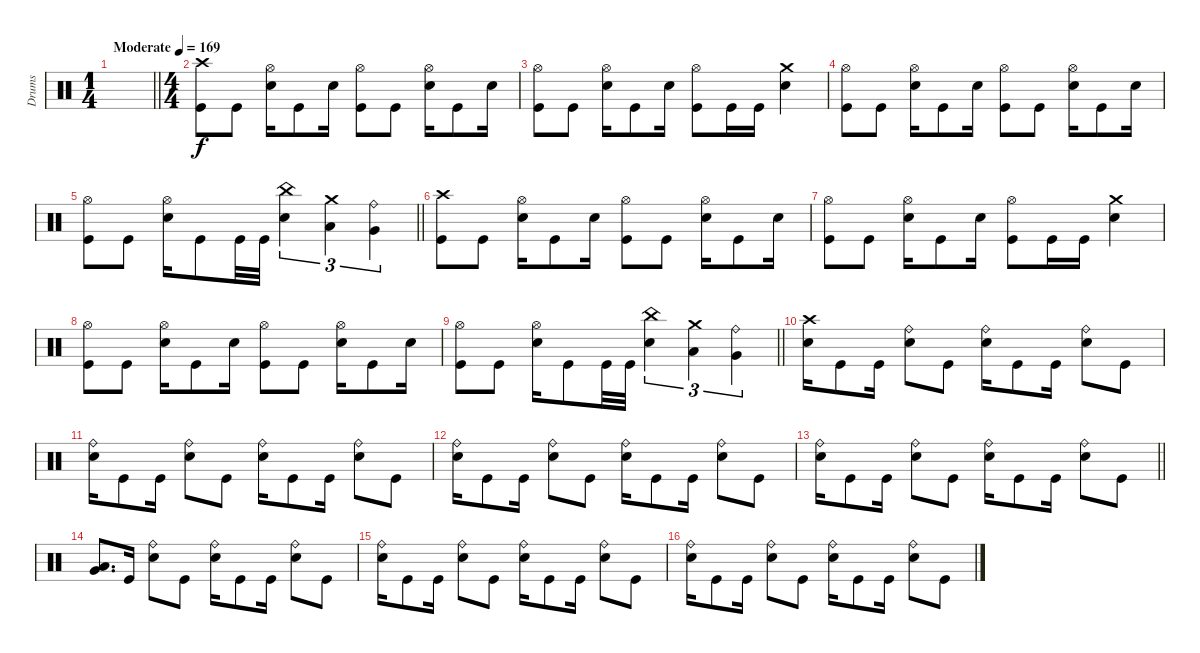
\track ("Drums" "Drums") {instrument percussion}
\staff
\articulation defaults
\ts (1 4)
\tempo (169 "Moderate")
\clef neutral
\barLineRight lightlight
\ks c
|
\ts (4 4)
("Crash high (hit)" "Kick (hit)").8 "Kick (hit)".8 ("Hi-Hat (open)" "Electric Snare (hit)").16 "Kick (hit)".8 "Electric Snare (hit)".16 ("Hi-Hat (open)" "Kick (hit)").8 "Kick (hit)".8 ("Hi-Hat (open)" "Electric Snare (hit)").16 "Kick (hit)".8 "Electric Snare (hit)".16 |
("Hi-Hat (open)" "Kick (hit)").8 "Kick (hit)".8 ("Hi-Hat (open)" "Electric Snare (hit)").16 "Kick (hit)".8 "Electric Snare (hit)".16 ("Hi-Hat (open)" "Kick (hit)").8 "Kick (hit)".16 "Kick (hit)".16 ("Crash medium (hit)" "Electric Snare (hit)").4 |
("Hi-Hat (open)" "Kick (hit)").8 "Kick (hit)".8 ("Hi-Hat (open)" "Electric Snare (hit)").16 "Kick (hit)".8 "Electric Snare (hit)".16 ("Hi-Hat (open)" "Kick (hit)").8 "Kick (hit)".8 ("Hi-Hat (open)" "Electric Snare (hit)").16 "Kick (hit)".8 "Electric Snare (hit)".16 |
\barLineRight lightlight
("Hi-Hat (open)" "Kick (hit)").8 "Kick (hit)".8 ("Hi-Hat (open)" "Electric Snare (hit)").16 "Kick (hit)".8 "Kick (hit)".32 "Kick (hit)".32 ("China (hit)" "Electric Snare (hit)").4{tu (3 2)} ("Crash medium (hit)" "Low Tom (hit)").4{tu (3 2)} ("Ride (bell)" "Very Low Tom (hit)").4{tu (3 2)} |
("Crash high (hit)" "Kick (hit)").8 "Kick (hit)".8 ("Hi-Hat (open)" "Electric Snare (hit)").16 "Kick (hit)".8 "Electric Snare (hit)".16 ("Hi-Hat (open)" "Kick (hit)").8 "Kick (hit)".8 ("Hi-Hat (open)" "Electric Snare (hit)").16 "Kick (hit)".8 "Electric Snare (hit)".16 |
("Hi-Hat (open)" "Kick (hit)").8 "Kick (hit)".8 ("Hi-Hat (open)" "Electric Snare (hit)").16 "Kick (hit)".8 "Electric Snare (hit)".16 ("Hi-Hat (open)" "Kick (hit)").8 "Kick (hit)".16 "Kick (hit)".16 ("Crash medium (hit)" "Electric Snare (hit)").4 |
("Hi-Hat (open)" "Kick (hit)").8 "Kick (hit)".8 ("Hi-Hat (open)" "Electric Snare (hit)").16 "Kick (hit)".8 "Electric Snare (hit)".16 ("Hi-Hat (open)" "Kick (hit)").8 "Kick (hit)".8 ("Hi-Hat (open)" "Electric Snare (hit)").16 "Kick (hit)".8 "Electric Snare (hit)".16 |
\barLineRight lightlight
("Hi-Hat (open)" "Kick (hit)").8 "Kick (hit)".8 ("Hi-Hat (open)" "Electric Snare (hit)").16 "Kick (hit)".8 "Kick (hit)".32 "Kick (hit)".32 ("China (hit)" "Electric Snare (hit)").4{tu (3 2)} ("Crash medium (hit)" "Low Tom (hit)").4{tu (3 2)} ("Ride (bell)" "Very Low Tom (hit)").4{tu (3 2)} |
("Crash high (hit)" "Electric Snare (hit)").16 "Kick (hit)".8 "Kick (hit)".16 ("Ride (bell)" "Electric Snare (hit)").8 "Kick (hit)".8 ("Ride (bell)" "Electric Snare (hit)").16 "Kick (hit)".8 "Kick (hit)".16 ("Ride (bell)" "Electric Snare (hit)").8 "Kick (hit)".8 |
("Ride (bell)" "Electric Snare (hit)").16 "Kick (hit)".8 "Kick (hit)".16 ("Ride (bell)" "Electric Snare (hit)").8 "Kick (hit)".8 ("Ride (bell)" "Electric Snare (hit)").16 "Kick (hit)".8 "Kick (hit)".16 ("Ride (bell)" "Electric Snare (hit)").8 "Kick (hit)".8 |
("Ride (bell)" "Electric Snare (hit)").16 "Kick (hit)".8 "Kick (hit)".16 ("Ride (bell)" "Electric Snare (hit)").8 "Kick (hit)".8 ("Ride (bell)" "Electric Snare (hit)").16 "Kick (hit)".8 "Kick (hit)".16 ("Ride (bell)" "Electric Snare (hit)").8 "Kick (hit)".8 |
\barLineRight lightlight
("Ride (bell)" "Electric Snare (hit)").16 "Kick (hit)".8 "Kick (hit)".16 ("Ride (bell)" "Electric Snare (hit)").8 "Kick (hit)".8 ("Ride (bell)" "Electric Snare (hit)").16 "Kick (hit)".8 "Kick (hit)".16 ("Ride (bell)" "Electric Snare (hit)").8 "Kick (hit)".8 |
("Very Low Tom (hit)" "Low Floor Tom (hit)").8{d} "Kick (hit)".16 ("Ride (bell)" "Electric Snare (hit)").8 "Kick (hit)".8 ("Ride (bell)" "Electric Snare (hit)").16 "Kick (hit)".8 "Kick (hit)".16 ("Ride (bell)" "Electric Snare (hit)").8 "Kick (hit)".8 |
("Ride (bell)" "Electric Snare (hit)").16 "Kick (hit)".8 "Kick (hit)".16 ("Ride (bell)" "Electric Snare (hit)").8 "Kick (hit)".8 ("Ride (bell)" "Electric Snare (hit)").16 "Kick (hit)".8 "Kick (hit)".16 ("Ride (bell)" "Electric Snare (hit)").8 "Kick (hit)".8 |
("Ride (bell)" "Electric Snare (hit)").16 "Kick (hit)".8 "Kick (hit)".16 ("Ride (bell)" "Electric Snare (hit)").8 "Kick (hit)".8 ("Ride (bell)" "Electric Snare (hit)").16 "Kick (hit)".8 "Kick (hit)".16 ("Ride (bell)" "Electric Snare (hit)").8 "Kick (hit)".8
